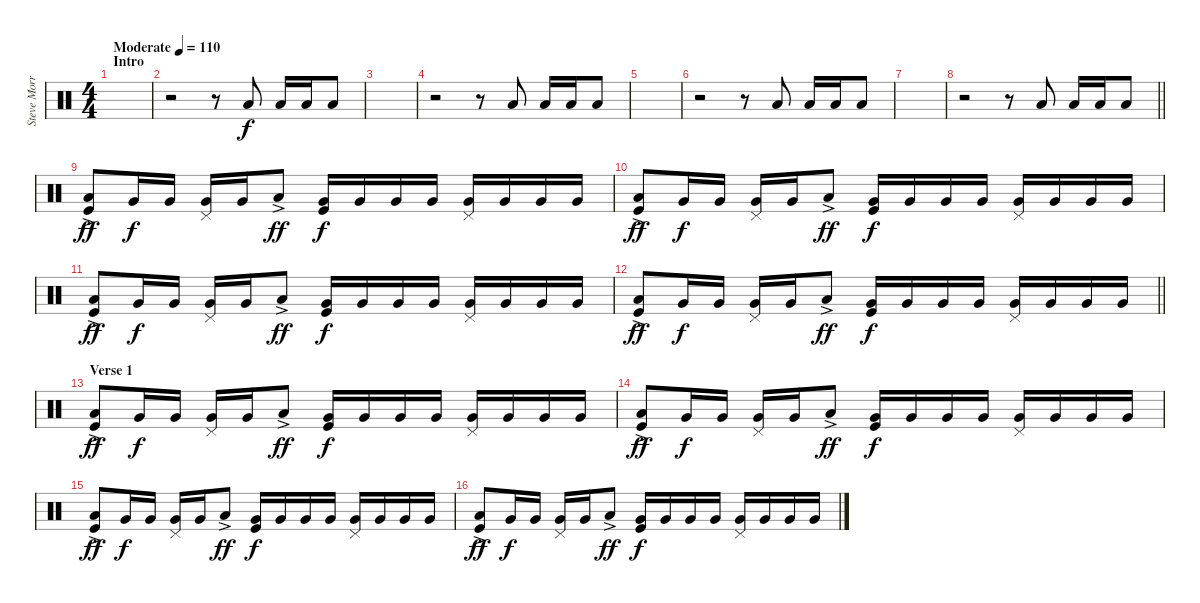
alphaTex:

\track ("Steve Morris Drums" "Steve Morr") {instrument percussion}
\staff {score}
\articulation defaults
\ts (4 4)
\section ("" "Intro")
\tempo (110 "Moderate")
\clef neutral
\ks c
|
r.2 r.8 "Low Tom (hit)".8 "Low Tom (hit)".16 "Low Tom (hit)".16 "Low Tom (hit)".8 |
|
r.2 r.8 "Low Tom (hit)".8 "Low Tom (hit)".16 "Low Tom (hit)".16 "Low Tom (hit)".8 |
|
r.2 r.8 "Low Tom (hit)".8 "Low Tom (hit)".16 "Low Tom (hit)".16 "Low Tom (hit)".8 |
|
\barLineRight lightlight
r.2 r.8 "Low Tom (hit)".8 "Low Tom (hit)".16 "Low Tom (hit)".16 "Low Tom (hit)".8 |
("Low Tom (hit)"{ac} "Kick (hit)").8{dy ff} "Very Low Tom (hit)".16{dy f} "Very Low Tom (hit)".16 ("Pedal Hi-Hat (hit)" "Very Low Tom (hit)").16 "Very Low Tom (hit)".16 "Low Tom (hit)"{ac}.8{dy ff} ("Very Low Tom (hit)" "Kick (hit)").16{dy f} "Very Low Tom (hit)".16 "Very Low Tom (hit)".16 "Very Low Tom (hit)".16 ("Pedal Hi-Hat (hit)" "Very Low Tom (hit)").16 "Very Low Tom (hit)".16 "Very Low Tom (hit)".16 "Very Low Tom (hit)".16 |
("Low Tom (hit)"{ac} "Kick (hit)").8{dy ff} "Very Low Tom (hit)".16{dy f} "Very Low Tom (hit)".16 ("Pedal Hi-Hat (hit)" "Very Low Tom (hit)").16 "Very Low Tom (hit)".16 "Low Tom (hit)"{ac}.8{dy ff} ("Very Low Tom (hit)" "Kick (hit)").16{dy f} "Very Low Tom (hit)".16 "Very Low Tom (hit)".16 "Very Low Tom (hit)".16 ("Pedal Hi-Hat (hit)" "Very Low Tom (hit)").16 "Very Low Tom (hit)".16 "Very Low Tom (hit)".16 "Very Low Tom (hit)".16 |
("Low Tom (hit)"{ac} "Kick (hit)").8{dy ff} "Very Low Tom (hit)".16{dy f} "Very Low Tom (hit)".16 ("Pedal Hi-Hat (hit)" "Very Low Tom (hit)").16 "Very Low Tom (hit)".16 "Low Tom (hit)"{ac}.8{dy ff} ("Very Low Tom (hit)" "Kick (hit)").16{dy f} "Very Low Tom (hit)".16 "Very Low Tom (hit)".16 "Very Low Tom (hit)".16 ("Pedal Hi-Hat (hit)" "Very Low Tom (hit)").16 "Very Low Tom (hit)".16 "Very Low Tom (hit)".16 "Very Low Tom (hit)".16 |
\barLineRight lightlight
("Low Tom (hit)"{ac} "Kick (hit)").8{dy ff} "Very Low Tom (hit)".16{dy f} "Very Low Tom (hit)".16 ("Pedal Hi-Hat (hit)" "Very Low Tom (hit)").16 "Very Low Tom (hit)".16 "Low Tom (hit)"{ac}.8{dy ff} ("Very Low Tom (hit)" "Kick (hit)").16{dy f} "Very Low Tom (hit)".16 "Very Low Tom (hit)".16 "Very Low Tom (hit)".16 ("Pedal Hi-Hat (hit)" "Very Low Tom (hit)").16 "Very Low Tom (hit)".16 "Very Low Tom (hit)".16 "Very Low Tom (hit)".16 |
\section ("" "Verse 1")
("Low Tom (hit)"{ac} "Kick (hit)").8{dy ff} "Very Low Tom (hit)".16{dy f} "Very Low Tom (hit)".16 ("Pedal Hi-Hat (hit)" "Very Low Tom (hit)").16 "Very Low Tom (hit)".16 "Low Tom (hit)"{ac}.8{dy ff} ("Very Low Tom (hit)" "Kick (hit)").16{dy f} "Very Low Tom (hit)".16 "Very Low Tom (hit)".16 "Very Low Tom (hit)".16 ("Pedal Hi-Hat (hit)" "Very Low Tom (hit)").16 "Very Low Tom (hit)".16 "Very Low Tom (hit)".16 "Very Low Tom (hit)".16 |
("Low Tom (hit)"{ac} "Kick (hit)").8{dy ff} "Very Low Tom (hit)".16{dy f} "Very Low Tom (hit)".16 ("Pedal Hi-Hat (hit)" "Very Low Tom (hit)").16 "Very Low Tom (hit)".16 "Low Tom (hit)"{ac}.8{dy ff} ("Very Low Tom (hit)" "Kick (hit)").16{dy f} "Very Low Tom (hit)".16 "Very Low Tom (hit)".16 "Very Low Tom (hit)".16 ("Pedal Hi-Hat (hit)" "Very Low Tom (hit)").16 "Very Low Tom (hit)".16 "Very Low Tom (hit)".16 "Very Low Tom (hit)".16 |
("Low Tom (hit)"{ac} "Kick (hit)").8{dy ff} "Very Low Tom (hit)".16{dy f} "Very Low Tom (hit)".16 ("Pedal Hi-Hat (hit)" "Very Low Tom (hit)").16 "Very Low Tom (hit)".16 "Low Tom (hit)"{ac}.8{dy ff} ("Very Low Tom (hit)" "Kick (hit)").16{dy f} "Very Low Tom (hit)".16 "Very Low Tom (hit)".16 "Very Low Tom (hit)".16 ("Pedal Hi-Hat (hit)" "Very Low Tom (hit)").16 "Very Low Tom (hit)".16 "Very Low Tom (hit)".16 "Very Low Tom (hit)".16 |
("Low Tom (hit)"{ac} "Kick (hit)").8{dy ff} "Very Low Tom (hit)".16{dy f} "Very Low Tom (hit)".16 ("Pedal Hi-Hat (hit)" "Very Low Tom (hit)").16 "Very Low Tom (hit)".16 "Low Tom (hit)"{ac}.8{dy ff} ("Very Low Tom (hit)" "Kick (hit)").16{dy f} "Very Low Tom (hit)".16 "Very Low Tom (hit)".16 "Very Low Tom (hit)".16 ("Pedal Hi-Hat (hit)" "Very Low Tom (hit)").16 "Very Low Tom (hit)".16 "Very Low Tom (hit)".16 "Very Low Tom (hit)".16
